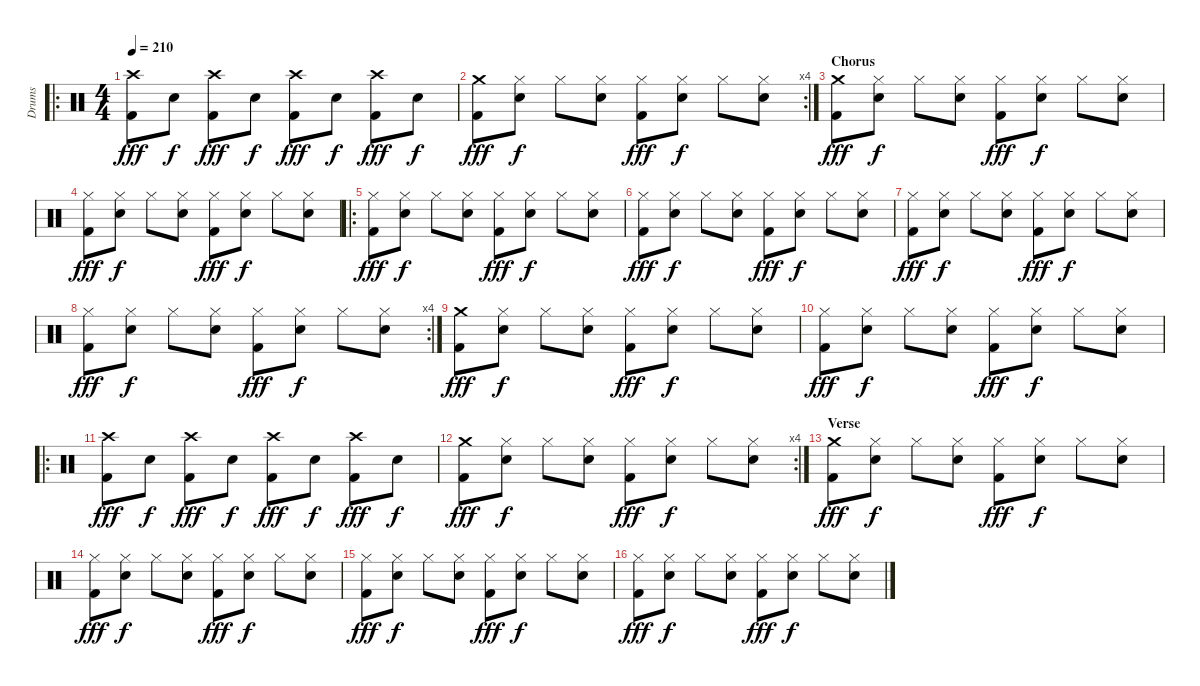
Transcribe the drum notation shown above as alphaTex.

\track ("Drums" "Drums") {instrument percussion}
\staff {score}
\articulation defaults
\ro
\ts (4 4)
\tempo 210
\clef neutral
\ks c
("Crash high (hit)" "Kick (hit) 2").8{dy fff} "Snare (hit) 2".8{dy f} ("Crash high (hit)" "Kick (hit) 2").8{dy fff} "Snare (hit) 2".8{dy f} ("Crash high (hit)" "Kick (hit) 2").8{dy fff} "Snare (hit) 2".8{dy f} ("Crash high (hit)" "Kick (hit) 2").8{dy fff} "Snare (hit) 2".8{dy f} |
\rc 4
("Crash medium (hit)" "Kick (hit) 2").8{dy fff} ("Hi-Hat (closed)" "Snare (hit) 2").8{dy f} "Hi-Hat (closed)".8 ("Hi-Hat (closed)" "Snare (hit) 2").8 ("Hi-Hat (closed)" "Kick (hit) 2").8{dy fff} ("Hi-Hat (closed)" "Snare (hit) 2").8{dy f} "Hi-Hat (closed)".8 ("Hi-Hat (closed)" "Snare (hit) 2").8 |
\section ("" "Chorus")
("Crash medium (hit)" "Kick (hit) 2").8{dy fff} ("Hi-Hat (closed)" "Snare (hit) 2").8{dy f} "Hi-Hat (closed)".8 ("Hi-Hat (closed)" "Snare (hit) 2").8 ("Hi-Hat (closed)" "Kick (hit) 2").8{dy fff} ("Hi-Hat (closed)" "Snare (hit) 2").8{dy f} "Hi-Hat (closed)".8 ("Hi-Hat (closed)" "Snare (hit) 2").8 |
("Hi-Hat (closed)" "Kick (hit) 2").8{dy fff} ("Hi-Hat (closed)" "Snare (hit) 2").8{dy f} "Hi-Hat (closed)".8 ("Hi-Hat (closed)" "Snare (hit) 2").8 ("Hi-Hat (closed)" "Kick (hit) 2").8{dy fff} ("Hi-Hat (closed)" "Snare (hit) 2").8{dy f} "Hi-Hat (closed)".8 ("Hi-Hat (closed)" "Snare (hit) 2").8 |
\ro
("Hi-Hat (closed)" "Kick (hit) 2").8{dy fff} ("Hi-Hat (closed)" "Snare (hit) 2").8{dy f} "Hi-Hat (closed)".8 ("Hi-Hat (closed)" "Snare (hit) 2").8 ("Hi-Hat (closed)" "Kick (hit) 2").8{dy fff} ("Hi-Hat (closed)" "Snare (hit) 2").8{dy f} "Hi-Hat (closed)".8 ("Hi-Hat (closed)" "Snare (hit) 2").8 |
("Hi-Hat (closed)" "Kick (hit) 2").8{dy fff} ("Hi-Hat (closed)" "Snare (hit) 2").8{dy f} "Hi-Hat (closed)".8 ("Hi-Hat (closed)" "Snare (hit) 2").8 ("Hi-Hat (closed)" "Kick (hit) 2").8{dy fff} ("Hi-Hat (closed)" "Snare (hit) 2").8{dy f} "Hi-Hat (closed)".8 ("Hi-Hat (closed)" "Snare (hit) 2").8 |
("Hi-Hat (closed)" "Kick (hit) 2").8{dy fff} ("Hi-Hat (closed)" "Snare (hit) 2").8{dy f} "Hi-Hat (closed)".8 ("Hi-Hat (closed)" "Snare (hit) 2").8 ("Hi-Hat (closed)" "Kick (hit) 2").8{dy fff} ("Hi-Hat (closed)" "Snare (hit) 2").8{dy f} "Hi-Hat (closed)".8 ("Hi-Hat (closed)" "Snare (hit) 2").8 |
\rc 4
("Hi-Hat (closed)" "Kick (hit) 2").8{dy fff} ("Hi-Hat (closed)" "Snare (hit) 2").8{dy f} "Hi-Hat (closed)".8 ("Hi-Hat (closed)" "Snare (hit) 2").8 ("Hi-Hat (closed)" "Kick (hit) 2").8{dy fff} ("Hi-Hat (closed)" "Snare (hit) 2").8{dy f} "Hi-Hat (closed)".8 ("Hi-Hat (closed)" "Snare (hit) 2").8 |
("Crash medium (hit)" "Kick (hit) 2").8{dy fff} ("Hi-Hat (closed)" "Snare (hit) 2").8{dy f} "Hi-Hat (closed)".8 ("Hi-Hat (closed)" "Snare (hit) 2").8 ("Hi-Hat (closed)" "Kick (hit) 2").8{dy fff} ("Hi-Hat (closed)" "Snare (hit) 2").8{dy f} "Hi-Hat (closed)".8 ("Hi-Hat (closed)" "Snare (hit) 2").8 |
("Hi-Hat (closed)" "Kick (hit) 2").8{dy fff} ("Hi-Hat (closed)" "Snare (hit) 2").8{dy f} "Hi-Hat (closed)".8 ("Hi-Hat (closed)" "Snare (hit) 2").8 ("Hi-Hat (closed)" "Kick (hit) 2").8{dy fff} ("Hi-Hat (closed)" "Snare (hit) 2").8{dy f} "Hi-Hat (closed)".8 ("Hi-Hat (closed)" "Snare (hit) 2").8 |
\ro
("Crash high (hit)" "Kick (hit) 2").8{dy fff} "Snare (hit) 2".8{dy f} ("Crash high (hit)" "Kick (hit) 2").8{dy fff} "Snare (hit) 2".8{dy f} ("Crash high (hit)" "Kick (hit) 2").8{dy fff} "Snare (hit) 2".8{dy f} ("Crash high (hit)" "Kick (hit) 2").8{dy fff} "Snare (hit) 2".8{dy f} |
\rc 4
("Crash medium (hit)" "Kick (hit) 2").8{dy fff} ("Hi-Hat (closed)" "Snare (hit) 2").8{dy f} "Hi-Hat (closed)".8 ("Hi-Hat (closed)" "Snare (hit) 2").8 ("Hi-Hat (closed)" "Kick (hit) 2").8{dy fff} ("Hi-Hat (closed)" "Snare (hit) 2").8{dy f} "Hi-Hat (closed)".8 ("Hi-Hat (closed)" "Snare (hit) 2").8 |
\section ("" "Verse")
("Crash medium (hit)" "Kick (hit) 2").8{dy fff} ("Hi-Hat (closed)" "Snare (hit) 2").8{dy f} "Hi-Hat (closed)".8 ("Hi-Hat (closed)" "Snare (hit) 2").8 ("Hi-Hat (closed)" "Kick (hit) 2").8{dy fff} ("Hi-Hat (closed)" "Snare (hit) 2").8{dy f} "Hi-Hat (closed)".8 ("Hi-Hat (closed)" "Snare (hit) 2").8 |
("Hi-Hat (closed)" "Kick (hit) 2").8{dy fff} ("Hi-Hat (closed)" "Snare (hit) 2").8{dy f} "Hi-Hat (closed)".8 ("Hi-Hat (closed)" "Snare (hit) 2").8 ("Hi-Hat (closed)" "Kick (hit) 2").8{dy fff} ("Hi-Hat (closed)" "Snare (hit) 2").8{dy f} "Hi-Hat (closed)".8 ("Hi-Hat (closed)" "Snare (hit) 2").8 |
("Hi-Hat (closed)" "Kick (hit) 2").8{dy fff} ("Hi-Hat (closed)" "Snare (hit) 2").8{dy f} "Hi-Hat (closed)".8 ("Hi-Hat (closed)" "Snare (hit) 2").8 ("Hi-Hat (closed)" "Kick (hit) 2").8{dy fff} ("Hi-Hat (closed)" "Snare (hit) 2").8{dy f} "Hi-Hat (closed)".8 ("Hi-Hat (closed)" "Snare (hit) 2").8 |
("Hi-Hat (closed)" "Kick (hit) 2").8{dy fff} ("Hi-Hat (closed)" "Snare (hit) 2").8{dy f} "Hi-Hat (closed)".8 ("Hi-Hat (closed)" "Snare (hit) 2").8 ("Hi-Hat (closed)" "Kick (hit) 2").8{dy fff} ("Hi-Hat (closed)" "Snare (hit) 2").8{dy f} "Hi-Hat (closed)".8 ("Hi-Hat (closed)" "Snare (hit) 2").8
